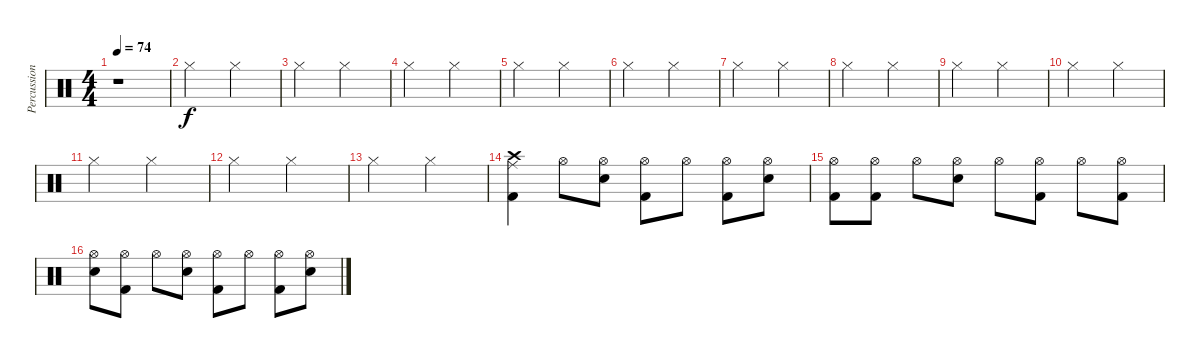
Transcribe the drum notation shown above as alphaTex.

\track ("Percussion" "Percussion") {instrument percussion}
\staff {score}
\articulation defaults
\ts (4 4)
\tempo 74
\clef neutral
\ks c
r.1{dy f} |
"Hi-Hat (closed)".2 "Hi-Hat (closed)".2 |
"Hi-Hat (closed)".2 "Hi-Hat (closed)".2 |
"Hi-Hat (closed)".2 "Hi-Hat (closed)".2 |
"Hi-Hat (closed)".2 "Hi-Hat (closed)".2 |
"Hi-Hat (closed)".2 "Hi-Hat (closed)".2 |
"Hi-Hat (closed)".2 "Hi-Hat (closed)".2 |
"Hi-Hat (closed)".2 "Hi-Hat (closed)".2 |
"Hi-Hat (closed)".2 "Hi-Hat (closed)".2 |
"Hi-Hat (closed)".2 "Hi-Hat (closed)".2 |
"Hi-Hat (closed)".2 "Hi-Hat (closed)".2 |
"Hi-Hat (closed)".2 "Hi-Hat (closed)".2 |
"Hi-Hat (closed)".2 "Hi-Hat (closed)".2 |
("Ride (middle)" "Crash high (hit)" "Kick (hit) 2").4 "Hi-Hat (open)".8 ("Hi-Hat (open)" "Snare (hit) 2").8 ("Hi-Hat (open)" "Kick (hit) 2").8 "Hi-Hat (open)".8 ("Hi-Hat (open)" "Kick (hit) 2").8 ("Hi-Hat (open)" "Snare (hit) 2").8 |
("Hi-Hat (open)" "Kick (hit) 2").8 ("Hi-Hat (open)" "Kick (hit) 2").8 "Hi-Hat (open)".8 ("Hi-Hat (open)" "Snare (hit) 2").8 "Hi-Hat (open)".8 ("Hi-Hat (open)" "Kick (hit) 2").8 "Hi-Hat (open)".8 ("Hi-Hat (open)" "Kick (hit) 2").8 |
("Hi-Hat (open)" "Snare (hit) 2").8 ("Hi-Hat (open)" "Kick (hit) 2").8 "Hi-Hat (open)".8 ("Hi-Hat (open)" "Snare (hit) 2").8 ("Hi-Hat (open)" "Kick (hit) 2").8 "Hi-Hat (open)".8 ("Hi-Hat (open)" "Kick (hit) 2").8 ("Hi-Hat (open)" "Snare (hit) 2").8
